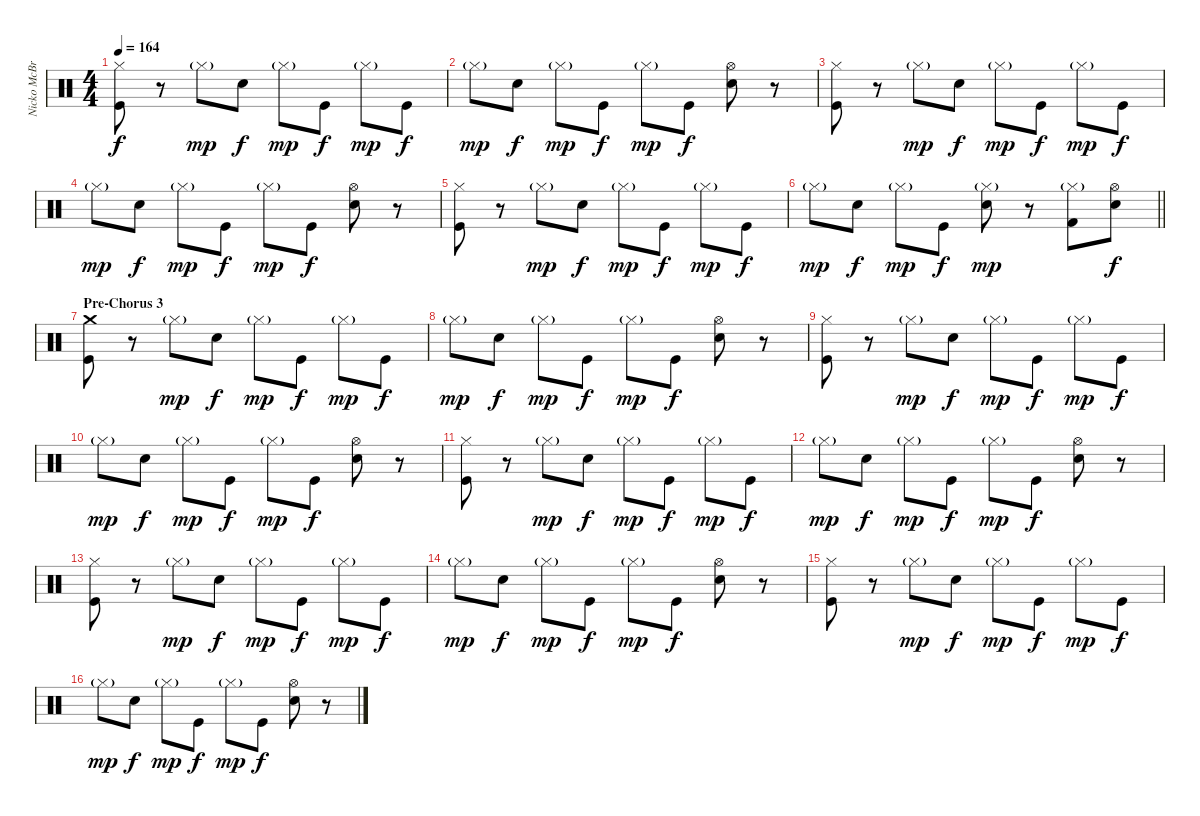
\track ("Nicko McBrain" "Nicko McBr") {instrument percussion}
\staff {score}
\articulation defaults
\ts (4 4)
\tempo 164
\clef neutral
\ks c
("Hi-Hat (closed)" "Kick (hit)").8{dy f} r.8 "Hi-Hat (closed)"{g}.8{dy mp} "Electric Snare (hit)".8{dy f} "Hi-Hat (closed)"{g}.8{dy mp} "Kick (hit)".8{dy f} "Hi-Hat (closed)"{g}.8{dy mp} "Kick (hit)".8{dy f} |
"Hi-Hat (closed)"{g}.8{dy mp} "Electric Snare (hit)".8{dy f} "Hi-Hat (closed)"{g}.8{dy mp} "Kick (hit)".8{dy f} "Hi-Hat (closed)"{g}.8{dy mp} "Kick (hit)".8{dy f} ("Hi-Hat (open)" "Electric Snare (hit)").8 r.8 |
("Hi-Hat (closed)" "Kick (hit)").8 r.8 "Hi-Hat (closed)"{g}.8{dy mp} "Electric Snare (hit)".8{dy f} "Hi-Hat (closed)"{g}.8{dy mp} "Kick (hit)".8{dy f} "Hi-Hat (closed)"{g}.8{dy mp} "Kick (hit)".8{dy f} |
"Hi-Hat (closed)"{g}.8{dy mp} "Electric Snare (hit)".8{dy f} "Hi-Hat (closed)"{g}.8{dy mp} "Kick (hit)".8{dy f} "Hi-Hat (closed)"{g}.8{dy mp} "Kick (hit)".8{dy f} ("Hi-Hat (open)" "Electric Snare (hit)").8 r.8 |
("Hi-Hat (closed)" "Kick (hit)").8 r.8 "Hi-Hat (closed)"{g}.8{dy mp} "Electric Snare (hit)".8{dy f} "Hi-Hat (closed)"{g}.8{dy mp} "Kick (hit)".8{dy f} "Hi-Hat (closed)"{g}.8{dy mp} "Kick (hit)".8{dy f} |
\barLineRight lightlight "Hi-Hat (closed)"{g}.8{dy mp} "Electric Snare (hit)".8{dy f} "Hi-Hat (closed)"{g}.8{dy mp} "Kick (hit)".8{dy f}
("Hi-Hat (closed)"{g} "Electric Snare (hit)").8{dy mp} r.8 ("Hi-Hat (closed)"{g} "Kick (hit) 2").8 ("Hi-Hat (open)" "Electric Snare (hit)").8{dy f} |
\section ("" "Pre-Chorus 3")
("Crash medium (hit)" "Kick (hit)").8 r.8 "Hi-Hat (closed)"{g}.8{dy mp} "Electric Snare (hit)".8{dy f} "Hi-Hat (closed)"{g}.8{dy mp} "Kick (hit)".8{dy f} "Hi-Hat (closed)"{g}.8{dy mp} "Kick (hit)".8{dy f} |
"Hi-Hat (closed)"{g}.8{dy mp} "Electric Snare (hit)".8{dy f} "Hi-Hat (closed)"{g}.8{dy mp} "Kick (hit)".8{dy f} "Hi-Hat (closed)"{g}.8{dy mp} "Kick (hit)".8{dy f} ("Hi-Hat (open)" "Electric Snare (hit)").8 r.8 |
("Hi-Hat (closed)" "Kick (hit)").8 r.8 "Hi-Hat (closed)"{g}.8{dy mp} "Electric Snare (hit)".8{dy f} "Hi-Hat (closed)"{g}.8{dy mp} "Kick (hit)".8{dy f} "Hi-Hat (closed)"{g}.8{dy mp} "Kick (hit)".8{dy f} |
"Hi-Hat (closed)"{g}.8{dy mp} "Electric Snare (hit)".8{dy f} "Hi-Hat (closed)"{g}.8{dy mp} "Kick (hit)".8{dy f} "Hi-Hat (closed)"{g}.8{dy mp} "Kick (hit)".8{dy f} ("Hi-Hat (open)" "Electric Snare (hit)").8 r.8 |
("Hi-Hat (closed)" "Kick (hit)").8 r.8 "Hi-Hat (closed)"{g}.8{dy mp} "Electric Snare (hit)".8{dy f} "Hi-Hat (closed)"{g}.8{dy mp} "Kick (hit)".8{dy f} "Hi-Hat (closed)"{g}.8{dy mp} "Kick (hit)".8{dy f} |
"Hi-Hat (closed)"{g}.8{dy mp} "Electric Snare (hit)".8{dy f} "Hi-Hat (closed)"{g}.8{dy mp} "Kick (hit)".8{dy f} "Hi-Hat (closed)"{g}.8{dy mp} "Kick (hit)".8{dy f} ("Hi-Hat (open)" "Electric Snare (hit)").8 r.8 |
("Hi-Hat (closed)" "Kick (hit)").8 r.8 "Hi-Hat (closed)"{g}.8{dy mp} "Electric Snare (hit)".8{dy f} "Hi-Hat (closed)"{g}.8{dy mp} "Kick (hit)".8{dy f} "Hi-Hat (closed)"{g}.8{dy mp} "Kick (hit)".8{dy f} |
"Hi-Hat (closed)"{g}.8{dy mp} "Electric Snare (hit)".8{dy f} "Hi-Hat (closed)"{g}.8{dy mp} "Kick (hit)".8{dy f} "Hi-Hat (closed)"{g}.8{dy mp} "Kick (hit)".8{dy f} ("Hi-Hat (open)" "Electric Snare (hit)").8 r.8 |
("Hi-Hat (closed)" "Kick (hit)").8 r.8 "Hi-Hat (closed)"{g}.8{dy mp} "Electric Snare (hit)".8{dy f} "Hi-Hat (closed)"{g}.8{dy mp} "Kick (hit)".8{dy f} "Hi-Hat (closed)"{g}.8{dy mp} "Kick (hit)".8{dy f} |
"Hi-Hat (closed)"{g}.8{dy mp} "Electric Snare (hit)".8{dy f} "Hi-Hat (closed)"{g}.8{dy mp} "Kick (hit)".8{dy f} "Hi-Hat (closed)"{g}.8{dy mp} "Kick (hit)".8{dy f} ("Hi-Hat (open)" "Electric Snare (hit)").8 r.8
